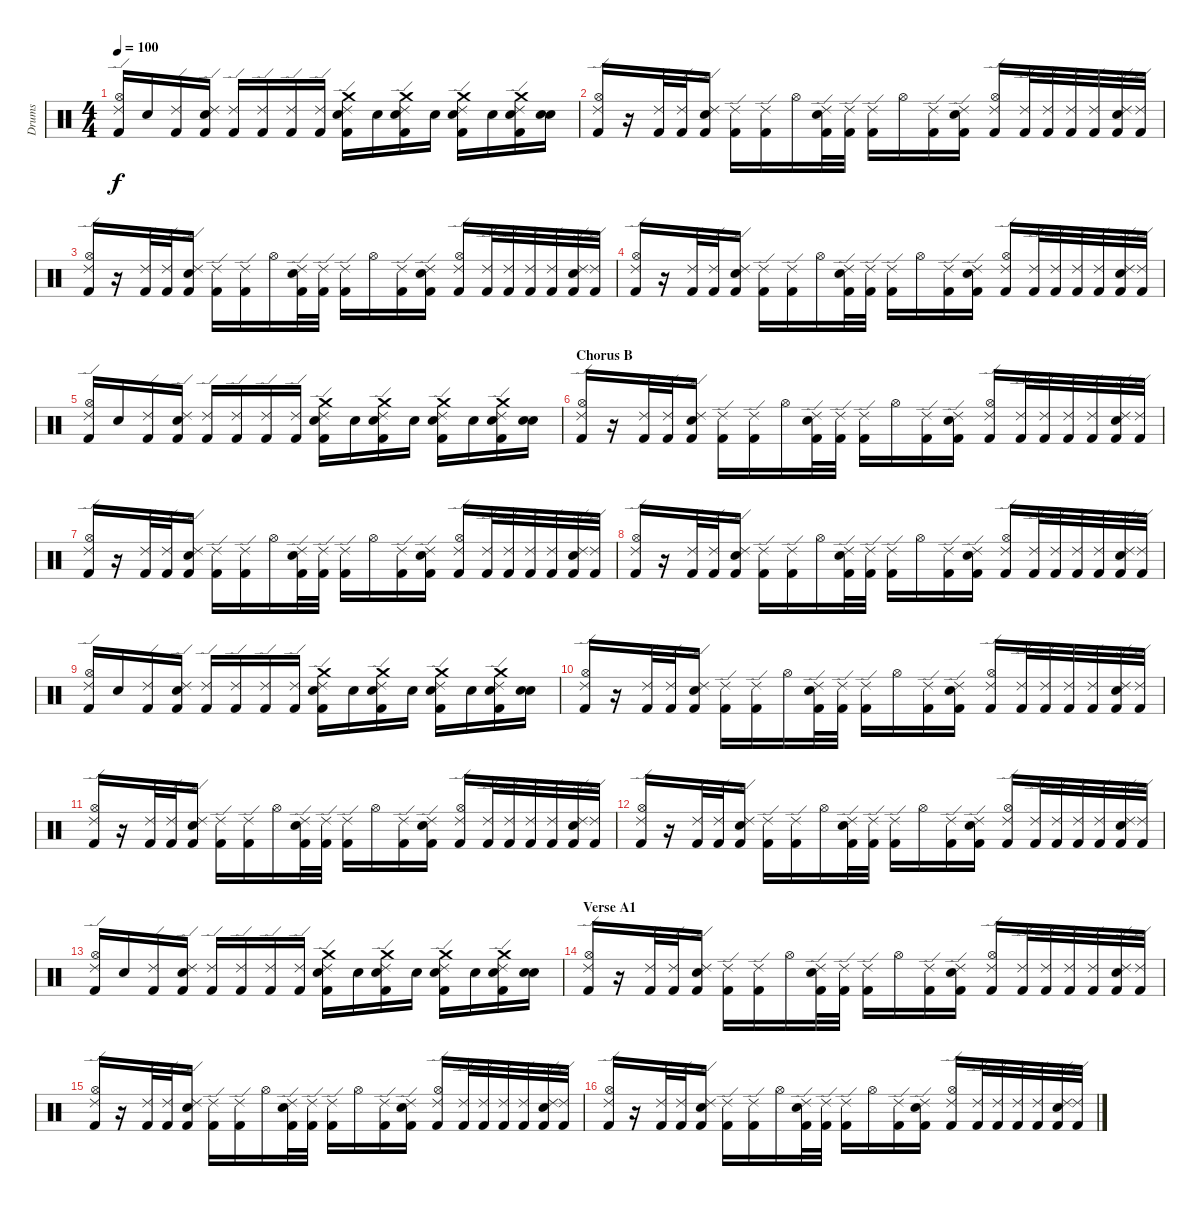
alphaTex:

\track ("Drums" "Drums") {instrument percussion}
\staff {score}
\articulation defaults
\ts (4 4)
\tempo 100
\clef neutral
\ks c
("Kick (hit) 2" "Hi-Hat (open)" "Ride (edge) 2").16{dy f} "Snare (hit)".16 ("Kick (hit) 2" "Ride (edge) 2").16 ("Kick (hit) 2" "Electric Snare (hit)" "Ride (edge) 2").16 ("Kick (hit) 2" "Ride (edge) 2").16 ("Kick (hit) 2" "Ride (edge) 2").16 ("Kick (hit) 2" "Ride (edge) 2").16 ("Kick (hit) 2" "Ride (edge) 2").16 ("Kick (hit) 2" "Electric Snare (hit)" "Crash medium (hit)" "Ride (edge) 2").16 "Snare (hit)".16 ("Kick (hit) 2" "Electric Snare (hit)" "Crash medium (hit)" "Ride (edge) 2").16 "Snare (hit)".16 ("Kick (hit) 2" "Electric Snare (hit)" "Crash medium (hit)" "Ride (edge) 2").16 "Snare (hit)".16 ("Kick (hit) 2" "Electric Snare (hit)" "Crash medium (hit)" "Ride (edge) 2").16 ("Snare (hit)" "Snare (hit)").16 |
("Kick (hit) 2" "Hi-Hat (open)" "Ride (edge) 2").16 r.16 ("Kick (hit) 2" "Ride (edge) 2").32 ("Kick (hit) 2" "Ride (edge) 2").32 ("Kick (hit) 2" "Electric Snare (hit)" "Ride (edge) 2").16 ("Kick (hit) 2" "Ride (edge) 2").16 ("Kick (hit) 2" "Ride (edge) 2").16 "Hi-Hat (open)".16 ("Kick (hit) 2" "Electric Snare (hit)" "Ride (edge) 2").32 ("Kick (hit) 2" "Ride (edge) 2").32 ("Kick (hit) 2" "Ride (edge) 2").16 "Hi-Hat (open)".16 ("Kick (hit) 2" "Ride (edge) 2").16 ("Kick (hit) 2" "Electric Snare (hit)" "Ride (edge) 2").16 ("Kick (hit) 2" "Hi-Hat (open)" "Ride (edge) 2").16 ("Kick (hit) 2" "Ride (edge) 2").32 ("Kick (hit) 2" "Ride (edge) 2").32 ("Kick (hit) 2" "Ride (edge) 2").32 ("Kick (hit) 2" "Ride (edge) 2").32 ("Kick (hit) 2" "Electric Snare (hit)" "Ride (edge) 2").32 ("Kick (hit) 2" "Ride (edge) 2").32 |
("Kick (hit) 2" "Hi-Hat (open)" "Ride (edge) 2").16 r.16 ("Kick (hit) 2" "Ride (edge) 2").32 ("Kick (hit) 2" "Ride (edge) 2").32 ("Kick (hit) 2" "Electric Snare (hit)" "Ride (edge) 2").16 ("Kick (hit) 2" "Ride (edge) 2").16 ("Kick (hit) 2" "Ride (edge) 2").16 "Hi-Hat (open)".16 ("Kick (hit) 2" "Electric Snare (hit)" "Ride (edge) 2").32 ("Kick (hit) 2" "Ride (edge) 2").32 ("Kick (hit) 2" "Ride (edge) 2").16 "Hi-Hat (open)".16 ("Kick (hit) 2" "Ride (edge) 2").16 ("Kick (hit) 2" "Electric Snare (hit)" "Ride (edge) 2").16 ("Kick (hit) 2" "Hi-Hat (open)" "Ride (edge) 2").16 ("Kick (hit) 2" "Ride (edge) 2").32 ("Kick (hit) 2" "Ride (edge) 2").32 ("Kick (hit) 2" "Ride (edge) 2").32 ("Kick (hit) 2" "Ride (edge) 2").32 ("Kick (hit) 2" "Electric Snare (hit)" "Ride (edge) 2").32 ("Kick (hit) 2" "Ride (edge) 2").32 |
("Kick (hit) 2" "Hi-Hat (open)" "Ride (edge) 2").16 r.16 ("Kick (hit) 2" "Ride (edge) 2").32 ("Kick (hit) 2" "Ride (edge) 2").32 ("Kick (hit) 2" "Electric Snare (hit)" "Ride (edge) 2").16 ("Kick (hit) 2" "Ride (edge) 2").16 ("Kick (hit) 2" "Ride (edge) 2").16 "Hi-Hat (open)".16 ("Kick (hit) 2" "Electric Snare (hit)" "Ride (edge) 2").32 ("Kick (hit) 2" "Ride (edge) 2").32 ("Kick (hit) 2" "Ride (edge) 2").16 "Hi-Hat (open)".16 ("Kick (hit) 2" "Ride (edge) 2").16 ("Kick (hit) 2" "Electric Snare (hit)" "Ride (edge) 2").16 ("Kick (hit) 2" "Hi-Hat (open)" "Ride (edge) 2").16 ("Kick (hit) 2" "Ride (edge) 2").32 ("Kick (hit) 2" "Ride (edge) 2").32 ("Kick (hit) 2" "Ride (edge) 2").32 ("Kick (hit) 2" "Ride (edge) 2").32 ("Kick (hit) 2" "Electric Snare (hit)" "Ride (edge) 2").32 ("Kick (hit) 2" "Ride (edge) 2").32 |
("Kick (hit) 2" "Hi-Hat (open)" "Ride (edge) 2").16 "Snare (hit)".16 ("Kick (hit) 2" "Ride (edge) 2").16 ("Kick (hit) 2" "Electric Snare (hit)" "Ride (edge) 2").16 ("Kick (hit) 2" "Ride (edge) 2").16 ("Kick (hit) 2" "Ride (edge) 2").16 ("Kick (hit) 2" "Ride (edge) 2").16 ("Kick (hit) 2" "Ride (edge) 2").16 ("Kick (hit) 2" "Electric Snare (hit)" "Crash medium (hit)" "Ride (edge) 2").16 "Snare (hit)".16 ("Kick (hit) 2" "Electric Snare (hit)" "Crash medium (hit)" "Ride (edge) 2").16 "Snare (hit)".16 ("Kick (hit) 2" "Electric Snare (hit)" "Crash medium (hit)" "Ride (edge) 2").16 "Snare (hit)".16 ("Kick (hit) 2" "Electric Snare (hit)" "Crash medium (hit)" "Ride (edge) 2").16 ("Snare (hit)" "Snare (hit)").16 |
\section ("" "Chorus B")
("Kick (hit) 2" "Hi-Hat (open)" "Ride (edge) 2").16 r.16 ("Kick (hit) 2" "Ride (edge) 2").32 ("Kick (hit) 2" "Ride (edge) 2").32 ("Kick (hit) 2" "Electric Snare (hit)" "Ride (edge) 2").16 ("Kick (hit) 2" "Ride (edge) 2").16 ("Kick (hit) 2" "Ride (edge) 2").16 "Hi-Hat (open)".16 ("Kick (hit) 2" "Electric Snare (hit)" "Ride (edge) 2").32 ("Kick (hit) 2" "Ride (edge) 2").32 ("Kick (hit) 2" "Ride (edge) 2").16 "Hi-Hat (open)".16 ("Kick (hit) 2" "Ride (edge) 2").16 ("Kick (hit) 2" "Electric Snare (hit)" "Ride (edge) 2").16 ("Kick (hit) 2" "Hi-Hat (open)" "Ride (edge) 2").16 ("Kick (hit) 2" "Ride (edge) 2").32 ("Kick (hit) 2" "Ride (edge) 2").32 ("Kick (hit) 2" "Ride (edge) 2").32 ("Kick (hit) 2" "Ride (edge) 2").32 ("Kick (hit) 2" "Electric Snare (hit)" "Ride (edge) 2").32 ("Kick (hit) 2" "Ride (edge) 2").32 |
("Kick (hit) 2" "Hi-Hat (open)" "Ride (edge) 2").16 r.16 ("Kick (hit) 2" "Ride (edge) 2").32 ("Kick (hit) 2" "Ride (edge) 2").32 ("Kick (hit) 2" "Electric Snare (hit)" "Ride (edge) 2").16 ("Kick (hit) 2" "Ride (edge) 2").16 ("Kick (hit) 2" "Ride (edge) 2").16 "Hi-Hat (open)".16 ("Kick (hit) 2" "Electric Snare (hit)" "Ride (edge) 2").32 ("Kick (hit) 2" "Ride (edge) 2").32 ("Kick (hit) 2" "Ride (edge) 2").16 "Hi-Hat (open)".16 ("Kick (hit) 2" "Ride (edge) 2").16 ("Kick (hit) 2" "Electric Snare (hit)" "Ride (edge) 2").16 ("Kick (hit) 2" "Hi-Hat (open)" "Ride (edge) 2").16 ("Kick (hit) 2" "Ride (edge) 2").32 ("Kick (hit) 2" "Ride (edge) 2").32 ("Kick (hit) 2" "Ride (edge) 2").32 ("Kick (hit) 2" "Ride (edge) 2").32 ("Kick (hit) 2" "Electric Snare (hit)" "Ride (edge) 2").32 ("Kick (hit) 2" "Ride (edge) 2").32 |
("Kick (hit) 2" "Hi-Hat (open)" "Ride (edge) 2").16 r.16 ("Kick (hit) 2" "Ride (edge) 2").32 ("Kick (hit) 2" "Ride (edge) 2").32 ("Kick (hit) 2" "Electric Snare (hit)" "Ride (edge) 2").16 ("Kick (hit) 2" "Ride (edge) 2").16 ("Kick (hit) 2" "Ride (edge) 2").16 "Hi-Hat (open)".16 ("Kick (hit) 2" "Electric Snare (hit)" "Ride (edge) 2").32 ("Kick (hit) 2" "Ride (edge) 2").32 ("Kick (hit) 2" "Ride (edge) 2").16 "Hi-Hat (open)".16 ("Kick (hit) 2" "Ride (edge) 2").16 ("Kick (hit) 2" "Electric Snare (hit)" "Ride (edge) 2").16 ("Kick (hit) 2" "Hi-Hat (open)" "Ride (edge) 2").16 ("Kick (hit) 2" "Ride (edge) 2").32 ("Kick (hit) 2" "Ride (edge) 2").32 ("Kick (hit) 2" "Ride (edge) 2").32 ("Kick (hit) 2" "Ride (edge) 2").32 ("Kick (hit) 2" "Electric Snare (hit)" "Ride (edge) 2").32 ("Kick (hit) 2" "Ride (edge) 2").32 |
("Kick (hit) 2" "Hi-Hat (open)" "Ride (edge) 2").16 "Snare (hit)".16 ("Kick (hit) 2" "Ride (edge) 2").16 ("Kick (hit) 2" "Electric Snare (hit)" "Ride (edge) 2").16 ("Kick (hit) 2" "Ride (edge) 2").16 ("Kick (hit) 2" "Ride (edge) 2").16 ("Kick (hit) 2" "Ride (edge) 2").16 ("Kick (hit) 2" "Ride (edge) 2").16 ("Kick (hit) 2" "Electric Snare (hit)" "Crash medium (hit)" "Ride (edge) 2").16 "Snare (hit)".16 ("Kick (hit) 2" "Electric Snare (hit)" "Crash medium (hit)" "Ride (edge) 2").16 "Snare (hit)".16 ("Kick (hit) 2" "Electric Snare (hit)" "Crash medium (hit)" "Ride (edge) 2").16 "Snare (hit)".16 ("Kick (hit) 2" "Electric Snare (hit)" "Crash medium (hit)" "Ride (edge) 2").16 ("Snare (hit)" "Snare (hit)").16 |
("Kick (hit) 2" "Hi-Hat (open)" "Ride (edge) 2").16 r.16 ("Kick (hit) 2" "Ride (edge) 2").32 ("Kick (hit) 2" "Ride (edge) 2").32 ("Kick (hit) 2" "Electric Snare (hit)" "Ride (edge) 2").16 ("Kick (hit) 2" "Ride (edge) 2").16 ("Kick (hit) 2" "Ride (edge) 2").16 "Hi-Hat (open)".16 ("Kick (hit) 2" "Electric Snare (hit)" "Ride (edge) 2").32 ("Kick (hit) 2" "Ride (edge) 2").32 ("Kick (hit) 2" "Ride (edge) 2").16 "Hi-Hat (open)".16 ("Kick (hit) 2" "Ride (edge) 2").16 ("Kick (hit) 2" "Electric Snare (hit)" "Ride (edge) 2").16 ("Kick (hit) 2" "Hi-Hat (open)" "Ride (edge) 2").16 ("Kick (hit) 2" "Ride (edge) 2").32 ("Kick (hit) 2" "Ride (edge) 2").32 ("Kick (hit) 2" "Ride (edge) 2").32 ("Kick (hit) 2" "Ride (edge) 2").32 ("Kick (hit) 2" "Electric Snare (hit)" "Ride (edge) 2").32 ("Kick (hit) 2" "Ride (edge) 2").32 |
("Kick (hit) 2" "Hi-Hat (open)" "Ride (edge) 2").16 r.16 ("Kick (hit) 2" "Ride (edge) 2").32 ("Kick (hit) 2" "Ride (edge) 2").32 ("Kick (hit) 2" "Electric Snare (hit)" "Ride (edge) 2").16 ("Kick (hit) 2" "Ride (edge) 2").16 ("Kick (hit) 2" "Ride (edge) 2").16 "Hi-Hat (open)".16 ("Kick (hit) 2" "Electric Snare (hit)" "Ride (edge) 2").32 ("Kick (hit) 2" "Ride (edge) 2").32 ("Kick (hit) 2" "Ride (edge) 2").16 "Hi-Hat (open)".16 ("Kick (hit) 2" "Ride (edge) 2").16 ("Kick (hit) 2" "Electric Snare (hit)" "Ride (edge) 2").16 ("Kick (hit) 2" "Hi-Hat (open)" "Ride (edge) 2").16 ("Kick (hit) 2" "Ride (edge) 2").32 ("Kick (hit) 2" "Ride (edge) 2").32 ("Kick (hit) 2" "Ride (edge) 2").32 ("Kick (hit) 2" "Ride (edge) 2").32 ("Kick (hit) 2" "Electric Snare (hit)" "Ride (edge) 2").32 ("Kick (hit) 2" "Ride (edge) 2").32 |
("Kick (hit) 2" "Hi-Hat (open)" "Ride (edge) 2").16 r.16 ("Kick (hit) 2" "Ride (edge) 2").32 ("Kick (hit) 2" "Ride (edge) 2").32 ("Kick (hit) 2" "Electric Snare (hit)" "Ride (edge) 2").16 ("Kick (hit) 2" "Ride (edge) 2").16 ("Kick (hit) 2" "Ride (edge) 2").16 "Hi-Hat (open)".16 ("Kick (hit) 2" "Electric Snare (hit)" "Ride (edge) 2").32 ("Kick (hit) 2" "Ride (edge) 2").32 ("Kick (hit) 2" "Ride (edge) 2").16 "Hi-Hat (open)".16 ("Kick (hit) 2" "Ride (edge) 2").16 ("Kick (hit) 2" "Electric Snare (hit)" "Ride (edge) 2").16 ("Kick (hit) 2" "Hi-Hat (open)" "Ride (edge) 2").16 ("Kick (hit) 2" "Ride (edge) 2").32 ("Kick (hit) 2" "Ride (edge) 2").32 ("Kick (hit) 2" "Ride (edge) 2").32 ("Kick (hit) 2" "Ride (edge) 2").32 ("Kick (hit) 2" "Electric Snare (hit)" "Ride (edge) 2").32 ("Kick (hit) 2" "Ride (edge) 2").32 |
("Kick (hit) 2" "Hi-Hat (open)" "Ride (edge) 2").16 "Snare (hit)".16 ("Kick (hit) 2" "Ride (edge) 2").16 ("Kick (hit) 2" "Electric Snare (hit)" "Ride (edge) 2").16 ("Kick (hit) 2" "Ride (edge) 2").16 ("Kick (hit) 2" "Ride (edge) 2").16 ("Kick (hit) 2" "Ride (edge) 2").16 ("Kick (hit) 2" "Ride (edge) 2").16 ("Kick (hit) 2" "Electric Snare (hit)" "Crash medium (hit)" "Ride (edge) 2").16 "Snare (hit)".16 ("Kick (hit) 2" "Electric Snare (hit)" "Crash medium (hit)" "Ride (edge) 2").16 "Snare (hit)".16 ("Kick (hit) 2" "Electric Snare (hit)" "Crash medium (hit)" "Ride (edge) 2").16 "Snare (hit)".16 ("Kick (hit) 2" "Electric Snare (hit)" "Crash medium (hit)" "Ride (edge) 2").16 ("Snare (hit)" "Snare (hit)").16 |
\section ("" "Verse A1")
("Kick (hit) 2" "Hi-Hat (open)" "Ride (edge) 2").16 r.16 ("Kick (hit) 2" "Ride (edge) 2").32 ("Kick (hit) 2" "Ride (edge) 2").32 ("Kick (hit) 2" "Electric Snare (hit)" "Ride (edge) 2").16 ("Kick (hit) 2" "Ride (edge) 2").16 ("Kick (hit) 2" "Ride (edge) 2").16 "Hi-Hat (open)".16 ("Kick (hit) 2" "Electric Snare (hit)" "Ride (edge) 2").32 ("Kick (hit) 2" "Ride (edge) 2").32 ("Kick (hit) 2" "Ride (edge) 2").16 "Hi-Hat (open)".16 ("Kick (hit) 2" "Ride (edge) 2").16 ("Kick (hit) 2" "Electric Snare (hit)" "Ride (edge) 2").16 ("Kick (hit) 2" "Hi-Hat (open)" "Ride (edge) 2").16 ("Kick (hit) 2" "Ride (edge) 2").32 ("Kick (hit) 2" "Ride (edge) 2").32 ("Kick (hit) 2" "Ride (edge) 2").32 ("Kick (hit) 2" "Ride (edge) 2").32 ("Kick (hit) 2" "Electric Snare (hit)" "Ride (edge) 2").32 ("Kick (hit) 2" "Ride (edge) 2").32 |
("Kick (hit) 2" "Hi-Hat (open)" "Ride (edge) 2").16 r.16 ("Kick (hit) 2" "Ride (edge) 2").32 ("Kick (hit) 2" "Ride (edge) 2").32 ("Kick (hit) 2" "Electric Snare (hit)" "Ride (edge) 2").16 ("Kick (hit) 2" "Ride (edge) 2").16 ("Kick (hit) 2" "Ride (edge) 2").16 "Hi-Hat (open)".16 ("Kick (hit) 2" "Electric Snare (hit)" "Ride (edge) 2").32 ("Kick (hit) 2" "Ride (edge) 2").32 ("Kick (hit) 2" "Ride (edge) 2").16 "Hi-Hat (open)".16 ("Kick (hit) 2" "Ride (edge) 2").16 ("Kick (hit) 2" "Electric Snare (hit)" "Ride (edge) 2").16 ("Kick (hit) 2" "Hi-Hat (open)" "Ride (edge) 2").16 ("Kick (hit) 2" "Ride (edge) 2").32 ("Kick (hit) 2" "Ride (edge) 2").32 ("Kick (hit) 2" "Ride (edge) 2").32 ("Kick (hit) 2" "Ride (edge) 2").32 ("Kick (hit) 2" "Electric Snare (hit)" "Ride (edge) 2").32 ("Kick (hit) 2" "Ride (edge) 2").32 |
("Kick (hit) 2" "Hi-Hat (open)" "Ride (edge) 2").16 r.16 ("Kick (hit) 2" "Ride (edge) 2").32 ("Kick (hit) 2" "Ride (edge) 2").32 ("Kick (hit) 2" "Electric Snare (hit)" "Ride (edge) 2").16 ("Kick (hit) 2" "Ride (edge) 2").16 ("Kick (hit) 2" "Ride (edge) 2").16 "Hi-Hat (open)".16 ("Kick (hit) 2" "Electric Snare (hit)" "Ride (edge) 2").32 ("Kick (hit) 2" "Ride (edge) 2").32 ("Kick (hit) 2" "Ride (edge) 2").16 "Hi-Hat (open)".16 ("Kick (hit) 2" "Ride (edge) 2").16 ("Kick (hit) 2" "Electric Snare (hit)" "Ride (edge) 2").16 ("Kick (hit) 2" "Hi-Hat (open)" "Ride (edge) 2").16 ("Kick (hit) 2" "Ride (edge) 2").32 ("Kick (hit) 2" "Ride (edge) 2").32 ("Kick (hit) 2" "Ride (edge) 2").32 ("Kick (hit) 2" "Ride (edge) 2").32 ("Kick (hit) 2" "Electric Snare (hit)" "Ride (edge) 2").32 ("Kick (hit) 2" "Ride (edge) 2").32
